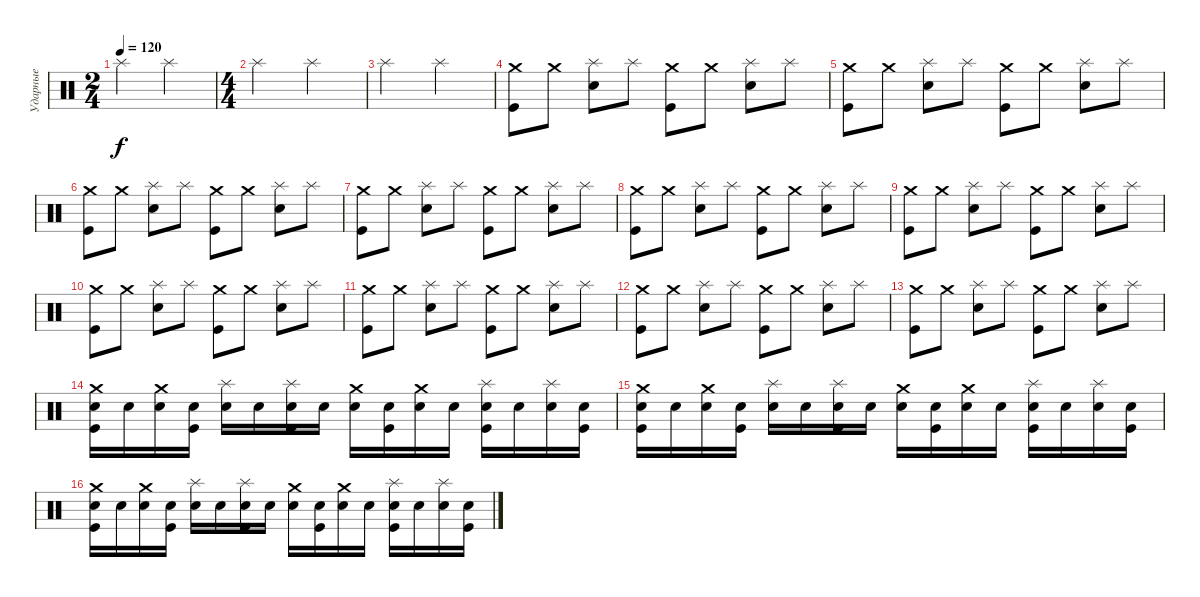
\track ("Ударные" "Ударные") {instrument percussion}
\staff {score}
\articulation defaults
\ts (2 4)
\tempo 120
\clef neutral
\ks c "Splash (hit)".4{dy f} "Splash (hit)".4
|
\ts (4 4)
"Splash (hit)".2 "Splash (hit)".2 |
"Splash (hit)".2 "Splash (hit)".2 |
("Crash medium (hit)" "Kick (hit)").8{volume 16} "Crash medium (hit)".8 ("Splash (hit)" "Snare (hit) 2").8 "Splash (hit)".8 ("Crash medium (hit)" "Kick (hit)").8 "Crash medium (hit)".8 ("Splash (hit)" "Snare (hit) 2").8 "Splash (hit)".8 |
("Crash medium (hit)" "Kick (hit)").8 "Crash medium (hit)".8 ("Splash (hit)" "Snare (hit) 2").8 "Splash (hit)".8 ("Crash medium (hit)" "Kick (hit)").8 "Crash medium (hit)".8 ("Splash (hit)" "Snare (hit) 2").8 "Splash (hit)".8 |
("Crash medium (hit)" "Kick (hit)").8 "Crash medium (hit)".8 ("Splash (hit)" "Snare (hit) 2").8 "Splash (hit)".8 ("Crash medium (hit)" "Kick (hit)").8 "Crash medium (hit)".8 ("Splash (hit)" "Snare (hit) 2").8 "Splash (hit)".8 |
("Crash medium (hit)" "Kick (hit)").8 "Crash medium (hit)".8 ("Splash (hit)" "Snare (hit) 2").8 "Splash (hit)".8 ("Crash medium (hit)" "Kick (hit)").8 "Crash medium (hit)".8 ("Splash (hit)" "Snare (hit) 2").8 "Splash (hit)".8 |
("Crash medium (hit)" "Kick (hit)").8 "Crash medium (hit)".8 ("Splash (hit)" "Snare (hit) 2").8 "Splash (hit)".8 ("Crash medium (hit)" "Kick (hit)").8 "Crash medium (hit)".8 ("Splash (hit)" "Snare (hit) 2").8 "Splash (hit)".8 |
("Crash medium (hit)" "Kick (hit)").8 "Crash medium (hit)".8 ("Splash (hit)" "Snare (hit) 2").8 "Splash (hit)".8 ("Crash medium (hit)" "Kick (hit)").8 "Crash medium (hit)".8 ("Splash (hit)" "Snare (hit) 2").8 "Splash (hit)".8 |
("Crash medium (hit)" "Kick (hit)").8 "Crash medium (hit)".8 ("Splash (hit)" "Snare (hit) 2").8 "Splash (hit)".8 ("Crash medium (hit)" "Kick (hit)").8 "Crash medium (hit)".8 ("Splash (hit)" "Snare (hit) 2").8 "Splash (hit)".8 |
("Crash medium (hit)" "Kick (hit)").8 "Crash medium (hit)".8 ("Splash (hit)" "Snare (hit) 2").8 "Splash (hit)".8 ("Crash medium (hit)" "Kick (hit)").8 "Crash medium (hit)".8 ("Splash (hit)" "Snare (hit) 2").8 "Splash (hit)".8 |
("Crash medium (hit)" "Kick (hit)").8 "Crash medium (hit)".8 ("Splash (hit)" "Snare (hit) 2").8 "Splash (hit)".8 ("Crash medium (hit)" "Kick (hit)").8 "Crash medium (hit)".8 ("Splash (hit)" "Snare (hit) 2").8 "Splash (hit)".8 |
("Crash medium (hit)" "Kick (hit)").8 "Crash medium (hit)".8 ("Splash (hit)" "Snare (hit) 2").8 "Splash (hit)".8 ("Crash medium (hit)" "Kick (hit)").8 "Crash medium (hit)".8 ("Splash (hit)" "Snare (hit) 2").8 "Splash (hit)".8 |
("Crash medium (hit)" "Snare (hit) 2" "Kick (hit)").16 "Electric Snare (hit)".16 ("Crash medium (hit)" "Snare (hit) 2").16 ("Electric Snare (hit)" "Kick (hit)").16 ("Splash (hit)" "Snare (hit) 2").16 "Electric Snare (hit)".16 ("Splash (hit)" "Snare (hit) 2" "Kick (hit)").16 "Electric Snare (hit)".16 ("Crash medium (hit)" "Snare (hit) 2").16 ("Electric Snare (hit)" "Kick (hit)").16 ("Crash medium (hit)" "Snare (hit) 2").16 "Electric Snare (hit)".16 ("Splash (hit)" "Snare (hit) 2" "Kick (hit)").16 "Electric Snare (hit)".16 ("Splash (hit)" "Snare (hit) 2").16 ("Electric Snare (hit)" "Kick (hit)").16 |
("Crash medium (hit)" "Electric Snare (hit)" "Kick (hit)").16 "Snare (hit) 2".16 ("Crash medium (hit)" "Snare (hit) 2").16 ("Electric Snare (hit)" "Kick (hit)").16 ("Splash (hit)" "Snare (hit) 2").16 "Electric Snare (hit)".16 ("Splash (hit)" "Snare (hit) 2" "Kick (hit)").16 "Electric Snare (hit)".16 ("Crash medium (hit)" "Snare (hit) 2").16 ("Electric Snare (hit)" "Kick (hit)").16 ("Crash medium (hit)" "Snare (hit) 2").16 "Electric Snare (hit)".16 ("Splash (hit)" "Snare (hit) 2" "Kick (hit)").16 "Electric Snare (hit)".16 ("Splash (hit)" "Snare (hit) 2").16 ("Electric Snare (hit)" "Kick (hit)").16 |
("Crash medium (hit)" "Electric Snare (hit)" "Kick (hit)").16 "Snare (hit) 2".16 ("Crash medium (hit)" "Electric Snare (hit)").16 ("Snare (hit) 2" "Kick (hit)").16 ("Splash (hit)" "Electric Snare (hit)").16 "Snare (hit) 2".16 ("Splash (hit)" "Electric Snare (hit)" "Kick (hit)").16 "Snare (hit) 2".16 ("Crash medium (hit)" "Electric Snare (hit)").16 ("Snare (hit) 2" "Kick (hit)").16 ("Crash medium (hit)" "Electric Snare (hit)").16 "Snare (hit) 2".16 ("Splash (hit)" "Electric Snare (hit)" "Kick (hit)").16 "Snare (hit) 2".16 ("Splash (hit)" "Electric Snare (hit)").16 ("Snare (hit) 2" "Kick (hit)").16
